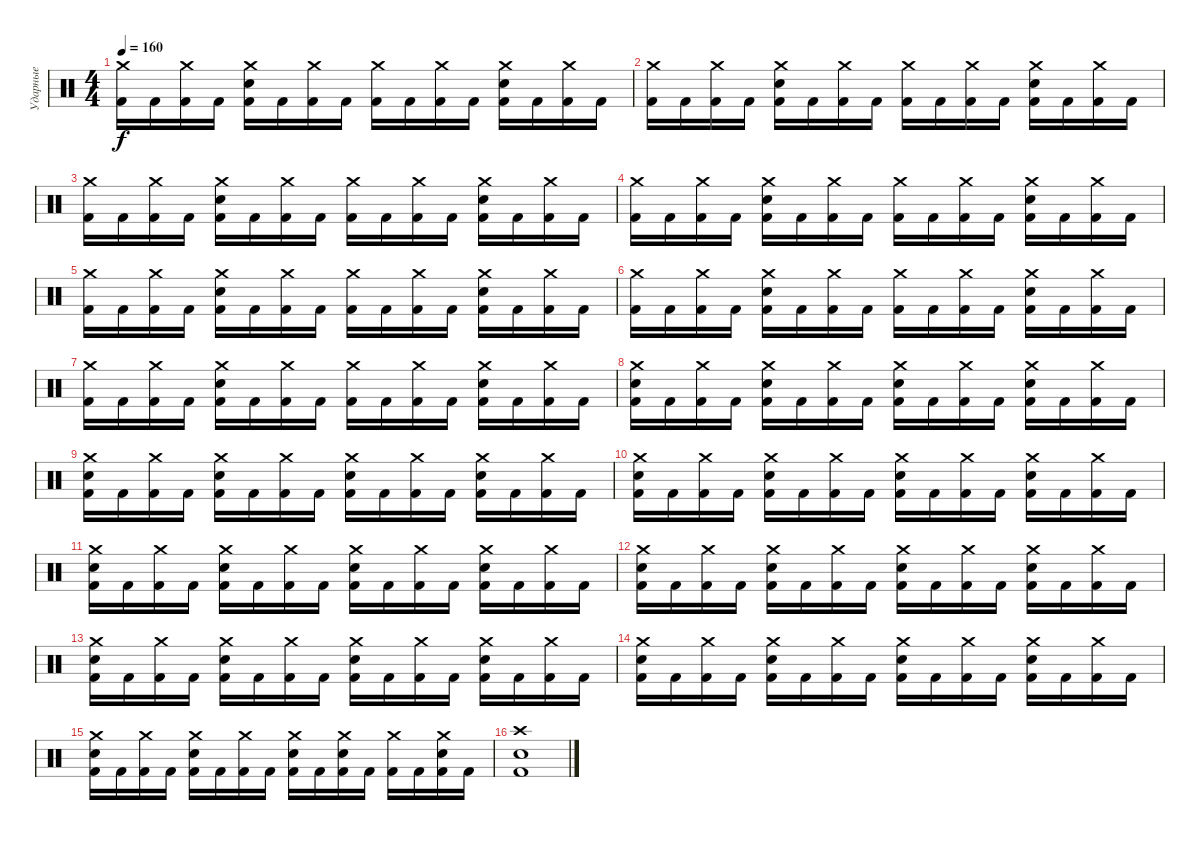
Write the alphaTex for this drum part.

\track ("Ударные" "Ударные") {instrument percussion}
\staff {score}
\articulation defaults
\ts (4 4)
\tempo 160
\clef neutral
\ks c
("Crash medium (hit)" "Kick (hit) 2").16{dy f} "Kick (hit) 2".16 ("Crash medium (hit)" "Kick (hit) 2").16 "Kick (hit) 2".16 ("Crash medium (hit)" "Electric Snare (hit)" "Kick (hit) 2").16 "Kick (hit) 2".16 ("Crash medium (hit)" "Kick (hit) 2").16 "Kick (hit) 2".16 ("Crash medium (hit)" "Kick (hit) 2").16 "Kick (hit) 2".16 ("Crash medium (hit)" "Kick (hit) 2").16 "Kick (hit) 2".16 ("Crash medium (hit)" "Electric Snare (hit)" "Kick (hit) 2").16 "Kick (hit) 2".16 ("Crash medium (hit)" "Kick (hit) 2").16 "Kick (hit) 2".16 |
("Crash medium (hit)" "Kick (hit) 2").16 "Kick (hit) 2".16 ("Crash medium (hit)" "Kick (hit) 2").16 "Kick (hit) 2".16 ("Crash medium (hit)" "Electric Snare (hit)" "Kick (hit) 2").16 "Kick (hit) 2".16 ("Crash medium (hit)" "Kick (hit) 2").16 "Kick (hit) 2".16 ("Crash medium (hit)" "Kick (hit) 2").16 "Kick (hit) 2".16 ("Crash medium (hit)" "Kick (hit) 2").16 "Kick (hit) 2".16 ("Crash medium (hit)" "Electric Snare (hit)" "Kick (hit) 2").16 "Kick (hit) 2".16 ("Crash medium (hit)" "Kick (hit) 2").16 "Kick (hit) 2".16 |
("Crash medium (hit)" "Kick (hit) 2").16 "Kick (hit) 2".16 ("Crash medium (hit)" "Kick (hit) 2").16 "Kick (hit) 2".16 ("Crash medium (hit)" "Electric Snare (hit)" "Kick (hit) 2").16 "Kick (hit) 2".16 ("Crash medium (hit)" "Kick (hit) 2").16 "Kick (hit) 2".16 ("Crash medium (hit)" "Kick (hit) 2").16 "Kick (hit) 2".16 ("Crash medium (hit)" "Kick (hit) 2").16 "Kick (hit) 2".16 ("Crash medium (hit)" "Electric Snare (hit)" "Kick (hit) 2").16 "Kick (hit) 2".16 ("Crash medium (hit)" "Kick (hit) 2").16 "Kick (hit) 2".16 |
("Crash medium (hit)" "Kick (hit) 2").16 "Kick (hit) 2".16 ("Crash medium (hit)" "Kick (hit) 2").16 "Kick (hit) 2".16 ("Crash medium (hit)" "Electric Snare (hit)" "Kick (hit) 2").16 "Kick (hit) 2".16 ("Crash medium (hit)" "Kick (hit) 2").16 "Kick (hit) 2".16 ("Crash medium (hit)" "Kick (hit) 2").16 "Kick (hit) 2".16 ("Crash medium (hit)" "Kick (hit) 2").16 "Kick (hit) 2".16 ("Crash medium (hit)" "Electric Snare (hit)" "Kick (hit) 2").16 "Kick (hit) 2".16 ("Crash medium (hit)" "Kick (hit) 2").16 "Kick (hit) 2".16 |
("Crash medium (hit)" "Kick (hit) 2").16 "Kick (hit) 2".16 ("Crash medium (hit)" "Kick (hit) 2").16 "Kick (hit) 2".16 ("Crash medium (hit)" "Electric Snare (hit)" "Kick (hit) 2").16 "Kick (hit) 2".16 ("Crash medium (hit)" "Kick (hit) 2").16 "Kick (hit) 2".16 ("Crash medium (hit)" "Kick (hit) 2").16 "Kick (hit) 2".16 ("Crash medium (hit)" "Kick (hit) 2").16 "Kick (hit) 2".16 ("Crash medium (hit)" "Electric Snare (hit)" "Kick (hit) 2").16 "Kick (hit) 2".16 ("Crash medium (hit)" "Kick (hit) 2").16 "Kick (hit) 2".16 |
("Crash medium (hit)" "Kick (hit) 2").16 "Kick (hit) 2".16 ("Crash medium (hit)" "Kick (hit) 2").16 "Kick (hit) 2".16 ("Crash medium (hit)" "Electric Snare (hit)" "Kick (hit) 2").16 "Kick (hit) 2".16 ("Crash medium (hit)" "Kick (hit) 2").16 "Kick (hit) 2".16 ("Crash medium (hit)" "Kick (hit) 2").16 "Kick (hit) 2".16 ("Crash medium (hit)" "Kick (hit) 2").16 "Kick (hit) 2".16 ("Crash medium (hit)" "Electric Snare (hit)" "Kick (hit) 2").16 "Kick (hit) 2".16 ("Crash medium (hit)" "Kick (hit) 2").16 "Kick (hit) 2".16 |
("Crash medium (hit)" "Kick (hit) 2").16 "Kick (hit) 2".16 ("Crash medium (hit)" "Kick (hit) 2").16 "Kick (hit) 2".16 ("Crash medium (hit)" "Electric Snare (hit)" "Kick (hit) 2").16 "Kick (hit) 2".16 ("Crash medium (hit)" "Kick (hit) 2").16 "Kick (hit) 2".16 ("Crash medium (hit)" "Kick (hit) 2").16 "Kick (hit) 2".16 ("Crash medium (hit)" "Kick (hit) 2").16 "Kick (hit) 2".16 ("Crash medium (hit)" "Electric Snare (hit)" "Kick (hit) 2").16 "Kick (hit) 2".16 ("Crash medium (hit)" "Kick (hit) 2").16 "Kick (hit) 2".16 |
("Crash medium (hit)" "Electric Snare (hit)" "Kick (hit) 2").16 "Kick (hit) 2".16 ("Crash medium (hit)" "Kick (hit) 2").16 "Kick (hit) 2".16 ("Crash medium (hit)" "Electric Snare (hit)" "Kick (hit) 2").16 "Kick (hit) 2".16 ("Crash medium (hit)" "Kick (hit) 2").16 "Kick (hit) 2".16 ("Crash medium (hit)" "Electric Snare (hit)" "Kick (hit) 2").16 "Kick (hit) 2".16 ("Crash medium (hit)" "Kick (hit) 2").16 "Kick (hit) 2".16 ("Crash medium (hit)" "Electric Snare (hit)" "Kick (hit) 2").16 "Kick (hit) 2".16 ("Crash medium (hit)" "Kick (hit) 2").16 "Kick (hit) 2".16 |
("Crash medium (hit)" "Electric Snare (hit)" "Kick (hit) 2").16 "Kick (hit) 2".16 ("Crash medium (hit)" "Kick (hit) 2").16 "Kick (hit) 2".16 ("Crash medium (hit)" "Electric Snare (hit)" "Kick (hit) 2").16 "Kick (hit) 2".16 ("Crash medium (hit)" "Kick (hit) 2").16 "Kick (hit) 2".16 ("Crash medium (hit)" "Electric Snare (hit)" "Kick (hit) 2").16 "Kick (hit) 2".16 ("Crash medium (hit)" "Kick (hit) 2").16 "Kick (hit) 2".16 ("Crash medium (hit)" "Electric Snare (hit)" "Kick (hit) 2").16 "Kick (hit) 2".16 ("Crash medium (hit)" "Kick (hit) 2").16 "Kick (hit) 2".16 |
("Crash medium (hit)" "Electric Snare (hit)" "Kick (hit) 2").16 "Kick (hit) 2".16 ("Crash medium (hit)" "Kick (hit) 2").16 "Kick (hit) 2".16 ("Crash medium (hit)" "Electric Snare (hit)" "Kick (hit) 2").16 "Kick (hit) 2".16 ("Crash medium (hit)" "Kick (hit) 2").16 "Kick (hit) 2".16 ("Crash medium (hit)" "Electric Snare (hit)" "Kick (hit) 2").16 "Kick (hit) 2".16 ("Crash medium (hit)" "Kick (hit) 2").16 "Kick (hit) 2".16 ("Crash medium (hit)" "Electric Snare (hit)" "Kick (hit) 2").16 "Kick (hit) 2".16 ("Crash medium (hit)" "Kick (hit) 2").16 "Kick (hit) 2".16 |
("Crash medium (hit)" "Electric Snare (hit)" "Kick (hit) 2").16 "Kick (hit) 2".16 ("Crash medium (hit)" "Kick (hit) 2").16 "Kick (hit) 2".16 ("Crash medium (hit)" "Electric Snare (hit)" "Kick (hit) 2").16 "Kick (hit) 2".16 ("Crash medium (hit)" "Kick (hit) 2").16 "Kick (hit) 2".16 ("Crash medium (hit)" "Electric Snare (hit)" "Kick (hit) 2").16 "Kick (hit) 2".16 ("Crash medium (hit)" "Kick (hit) 2").16 "Kick (hit) 2".16 ("Crash medium (hit)" "Electric Snare (hit)" "Kick (hit) 2").16 "Kick (hit) 2".16 ("Crash medium (hit)" "Kick (hit) 2").16 "Kick (hit) 2".16 |
("Crash medium (hit)" "Electric Snare (hit)" "Kick (hit) 2").16 "Kick (hit) 2".16 ("Crash medium (hit)" "Kick (hit) 2").16 "Kick (hit) 2".16 ("Crash medium (hit)" "Electric Snare (hit)" "Kick (hit) 2").16 "Kick (hit) 2".16 ("Crash medium (hit)" "Kick (hit) 2").16 "Kick (hit) 2".16 ("Crash medium (hit)" "Electric Snare (hit)" "Kick (hit) 2").16 "Kick (hit) 2".16 ("Crash medium (hit)" "Kick (hit) 2").16 "Kick (hit) 2".16 ("Crash medium (hit)" "Electric Snare (hit)" "Kick (hit) 2").16 "Kick (hit) 2".16 ("Crash medium (hit)" "Kick (hit) 2").16 "Kick (hit) 2".16 |
("Crash medium (hit)" "Electric Snare (hit)" "Kick (hit) 2").16 "Kick (hit) 2".16 ("Crash medium (hit)" "Kick (hit) 2").16 "Kick (hit) 2".16 ("Crash medium (hit)" "Electric Snare (hit)" "Kick (hit) 2").16 "Kick (hit) 2".16 ("Crash medium (hit)" "Kick (hit) 2").16 "Kick (hit) 2".16 ("Crash medium (hit)" "Electric Snare (hit)" "Kick (hit) 2").16 "Kick (hit) 2".16 ("Crash medium (hit)" "Kick (hit) 2").16 "Kick (hit) 2".16 ("Crash medium (hit)" "Electric Snare (hit)" "Kick (hit) 2").16 "Kick (hit) 2".16 ("Crash medium (hit)" "Kick (hit) 2").16 "Kick (hit) 2".16 |
("Crash medium (hit)" "Electric Snare (hit)" "Kick (hit) 2").16 "Kick (hit) 2".16 ("Crash medium (hit)" "Kick (hit) 2").16 "Kick (hit) 2".16 ("Crash medium (hit)" "Electric Snare (hit)" "Kick (hit) 2").16 "Kick (hit) 2".16 ("Crash medium (hit)" "Kick (hit) 2").16 "Kick (hit) 2".16 ("Crash medium (hit)" "Electric Snare (hit)" "Kick (hit) 2").16 "Kick (hit) 2".16 ("Crash medium (hit)" "Kick (hit) 2").16 "Kick (hit) 2".16 ("Crash medium (hit)" "Electric Snare (hit)" "Kick (hit) 2").16 "Kick (hit) 2".16 ("Crash medium (hit)" "Kick (hit) 2").16 "Kick (hit) 2".16 |
("Crash medium (hit)" "Electric Snare (hit)" "Kick (hit) 2").16 "Kick (hit) 2".16 ("Crash medium (hit)" "Kick (hit) 2").16 "Kick (hit) 2".16 ("Crash medium (hit)" "Electric Snare (hit)" "Kick (hit) 2").16 "Kick (hit) 2".16 ("Crash medium (hit)" "Kick (hit) 2").16 "Kick (hit) 2".16 ("Crash medium (hit)" "Electric Snare (hit)" "Kick (hit) 2").16 "Kick (hit) 2".16 ("Crash medium (hit)" "Electric Snare (hit)" "Kick (hit) 2").16 "Kick (hit) 2".16 ("Crash medium (hit)" "Kick (hit) 2").16 "Kick (hit) 2".16 ("Crash medium (hit)" "Electric Snare (hit)" "Kick (hit) 2").16 "Kick (hit) 2".16 |
("Crash high (hit)" "Electric Snare (hit)" "Kick (hit) 2").1
